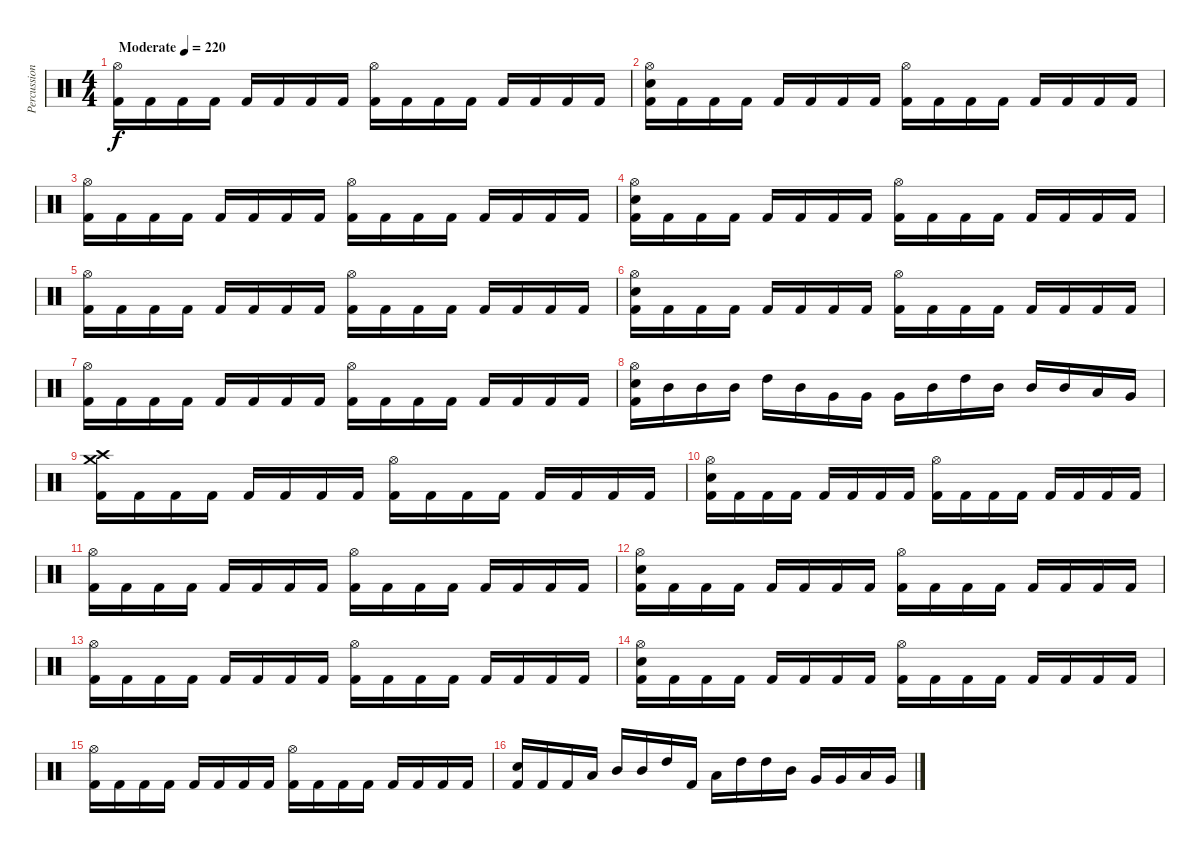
\track ("Percussion" "Percussion") {instrument percussion}
\staff {score}
\articulation defaults
\ts (4 4)
\tempo (220 "Moderate")
\clef neutral
\ks c
("Hi-Hat (open)" "Kick (hit) 2").16{dy f} "Kick (hit) 2".16 "Kick (hit) 2".16 "Kick (hit) 2".16 "Kick (hit) 2".16 "Kick (hit) 2".16 "Kick (hit) 2".16 "Kick (hit) 2".16 ("Hi-Hat (open)" "Kick (hit) 2").16 "Kick (hit) 2".16 "Kick (hit) 2".16 "Kick (hit) 2".16 "Kick (hit) 2".16 "Kick (hit) 2".16 "Kick (hit) 2".16 "Kick (hit) 2".16 |
("Hi-Hat (open)" "Electric Snare (hit)" "Kick (hit) 2").16 "Kick (hit) 2".16 "Kick (hit) 2".16 "Kick (hit) 2".16 "Kick (hit) 2".16 "Kick (hit) 2".16 "Kick (hit) 2".16 "Kick (hit) 2".16 ("Hi-Hat (open)" "Kick (hit) 2").16 "Kick (hit) 2".16 "Kick (hit) 2".16 "Kick (hit) 2".16 "Kick (hit) 2".16 "Kick (hit) 2".16 "Kick (hit) 2".16 "Kick (hit) 2".16 |
("Hi-Hat (open)" "Kick (hit) 2").16 "Kick (hit) 2".16 "Kick (hit) 2".16 "Kick (hit) 2".16 "Kick (hit) 2".16 "Kick (hit) 2".16 "Kick (hit) 2".16 "Kick (hit) 2".16 ("Hi-Hat (open)" "Kick (hit) 2").16 "Kick (hit) 2".16 "Kick (hit) 2".16 "Kick (hit) 2".16 "Kick (hit) 2".16 "Kick (hit) 2".16 "Kick (hit) 2".16 "Kick (hit) 2".16 |
("Hi-Hat (open)" "Electric Snare (hit)" "Kick (hit) 2").16 "Kick (hit) 2".16 "Kick (hit) 2".16 "Kick (hit) 2".16 "Kick (hit) 2".16 "Kick (hit) 2".16 "Kick (hit) 2".16 "Kick (hit) 2".16 ("Hi-Hat (open)" "Kick (hit) 2").16 "Kick (hit) 2".16 "Kick (hit) 2".16 "Kick (hit) 2".16 "Kick (hit) 2".16 "Kick (hit) 2".16 "Kick (hit) 2".16 "Kick (hit) 2".16 |
("Hi-Hat (open)" "Kick (hit) 2").16 "Kick (hit) 2".16 "Kick (hit) 2".16 "Kick (hit) 2".16 "Kick (hit) 2".16 "Kick (hit) 2".16 "Kick (hit) 2".16 "Kick (hit) 2".16 ("Hi-Hat (open)" "Kick (hit) 2").16 "Kick (hit) 2".16 "Kick (hit) 2".16 "Kick (hit) 2".16 "Kick (hit) 2".16 "Kick (hit) 2".16 "Kick (hit) 2".16 "Kick (hit) 2".16 |
("Hi-Hat (open)" "Electric Snare (hit)" "Kick (hit) 2").16 "Kick (hit) 2".16 "Kick (hit) 2".16 "Kick (hit) 2".16 "Kick (hit) 2".16 "Kick (hit) 2".16 "Kick (hit) 2".16 "Kick (hit) 2".16 ("Hi-Hat (open)" "Kick (hit) 2").16 "Kick (hit) 2".16 "Kick (hit) 2".16 "Kick (hit) 2".16 "Kick (hit) 2".16 "Kick (hit) 2".16 "Kick (hit) 2".16 "Kick (hit) 2".16 |
("Hi-Hat (open)" "Kick (hit) 2").16 "Kick (hit) 2".16 "Kick (hit) 2".16 "Kick (hit) 2".16 "Kick (hit) 2".16 "Kick (hit) 2".16 "Kick (hit) 2".16 "Kick (hit) 2".16 ("Hi-Hat (open)" "Kick (hit) 2").16 "Kick (hit) 2".16 "Kick (hit) 2".16 "Kick (hit) 2".16 "Kick (hit) 2".16 "Kick (hit) 2".16 "Kick (hit) 2".16 "Kick (hit) 2".16 |
("Hi-Hat (open)" "Electric Snare (hit)" "Kick (hit) 2").16 "Mid Tom (hit)".16 "Mid Tom (hit)".16 "Mid Tom (hit)".16 "High Tom (hit)".16 "Mid Tom (hit)".16 "Very Low Tom (hit)".16 "Very Low Tom (hit)".16 "Very Low Tom (hit)".16 "Mid Tom (hit)".16 "High Tom (hit)".16 "Mid Tom (hit)".16 "Mid Tom (hit)".16 "Mid Tom (hit)".16 "Low Tom (hit)".16 "Very Low Tom (hit)".16 |
("Crash medium (hit)" "Crash high (hit)" "Kick (hit) 2").16 "Kick (hit) 2".16 "Kick (hit) 2".16 "Kick (hit) 2".16 "Kick (hit) 2".16 "Kick (hit) 2".16 "Kick (hit) 2".16 "Kick (hit) 2".16 ("Hi-Hat (open)" "Kick (hit) 2").16 "Kick (hit) 2".16 "Kick (hit) 2".16 "Kick (hit) 2".16 "Kick (hit) 2".16 "Kick (hit) 2".16 "Kick (hit) 2".16 "Kick (hit) 2".16 |
("Hi-Hat (open)" "Electric Snare (hit)" "Kick (hit) 2").16 "Kick (hit) 2".16 "Kick (hit) 2".16 "Kick (hit) 2".16 "Kick (hit) 2".16 "Kick (hit) 2".16 "Kick (hit) 2".16 "Kick (hit) 2".16 ("Hi-Hat (open)" "Kick (hit) 2").16 "Kick (hit) 2".16 "Kick (hit) 2".16 "Kick (hit) 2".16 "Kick (hit) 2".16 "Kick (hit) 2".16 "Kick (hit) 2".16 "Kick (hit) 2".16 |
("Hi-Hat (open)" "Kick (hit) 2").16 "Kick (hit) 2".16 "Kick (hit) 2".16 "Kick (hit) 2".16 "Kick (hit) 2".16 "Kick (hit) 2".16 "Kick (hit) 2".16 "Kick (hit) 2".16 ("Hi-Hat (open)" "Kick (hit) 2").16 "Kick (hit) 2".16 "Kick (hit) 2".16 "Kick (hit) 2".16 "Kick (hit) 2".16 "Kick (hit) 2".16 "Kick (hit) 2".16 "Kick (hit) 2".16 |
("Hi-Hat (open)" "Electric Snare (hit)" "Kick (hit) 2").16 "Kick (hit) 2".16 "Kick (hit) 2".16 "Kick (hit) 2".16 "Kick (hit) 2".16 "Kick (hit) 2".16 "Kick (hit) 2".16 "Kick (hit) 2".16 ("Hi-Hat (open)" "Kick (hit) 2").16 "Kick (hit) 2".16 "Kick (hit) 2".16 "Kick (hit) 2".16 "Kick (hit) 2".16 "Kick (hit) 2".16 "Kick (hit) 2".16 "Kick (hit) 2".16 |
("Hi-Hat (open)" "Kick (hit) 2").16 "Kick (hit) 2".16 "Kick (hit) 2".16 "Kick (hit) 2".16 "Kick (hit) 2".16 "Kick (hit) 2".16 "Kick (hit) 2".16 "Kick (hit) 2".16 ("Hi-Hat (open)" "Kick (hit) 2").16 "Kick (hit) 2".16 "Kick (hit) 2".16 "Kick (hit) 2".16 "Kick (hit) 2".16 "Kick (hit) 2".16 "Kick (hit) 2".16 "Kick (hit) 2".16 |
("Hi-Hat (open)" "Electric Snare (hit)" "Kick (hit) 2").16 "Kick (hit) 2".16 "Kick (hit) 2".16 "Kick (hit) 2".16 "Kick (hit) 2".16 "Kick (hit) 2".16 "Kick (hit) 2".16 "Kick (hit) 2".16 ("Hi-Hat (open)" "Kick (hit) 2").16 "Kick (hit) 2".16 "Kick (hit) 2".16 "Kick (hit) 2".16 "Kick (hit) 2".16 "Kick (hit) 2".16 "Kick (hit) 2".16 "Kick (hit) 2".16 |
("Hi-Hat (open)" "Kick (hit) 2").16 "Kick (hit) 2".16 "Kick (hit) 2".16 "Kick (hit) 2".16 "Kick (hit) 2".16 "Kick (hit) 2".16 "Kick (hit) 2".16 "Kick (hit) 2".16 ("Hi-Hat (open)" "Kick (hit) 2").16 "Kick (hit) 2".16 "Kick (hit) 2".16 "Kick (hit) 2".16 "Kick (hit) 2".16 "Kick (hit) 2".16 "Kick (hit) 2".16 "Kick (hit) 2".16 |
("Electric Snare (hit)" "Kick (hit) 2").16 "Kick (hit) 2".16 "Kick (hit) 2".16 "Low Tom (hit)".16 "Mid Tom (hit)".16 "Mid Tom (hit)".16 "High Tom (hit)".16 "Kick (hit) 2".16 "Low Tom (hit)".16 "High Tom (hit)".16 "High Tom (hit)".16 "Mid Tom (hit)".16 "Very Low Tom (hit)".16 "Very Low Tom (hit)".16 "Low Tom (hit)".16 "Very Low Tom (hit)".16
